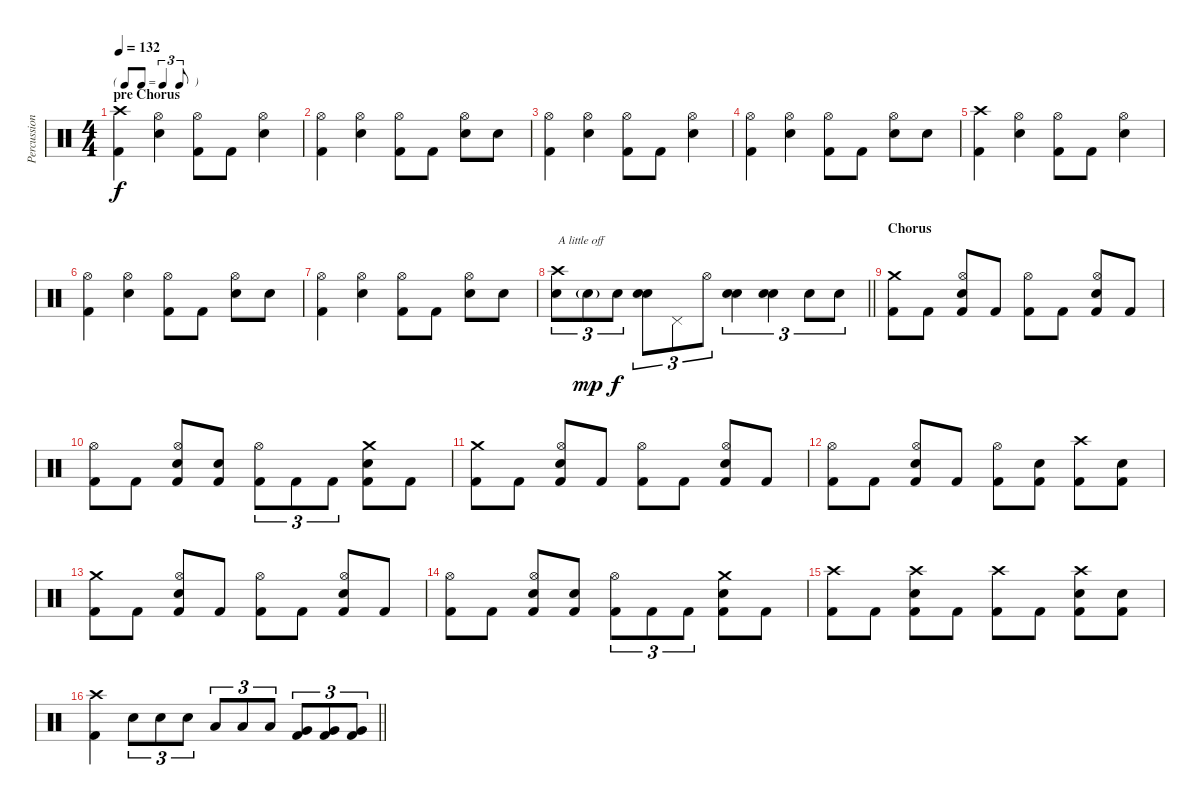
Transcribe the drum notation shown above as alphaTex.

\track ("Percussion" "Percussion") {instrument percussion}
\staff {score}
\articulation defaults
\ts (4 4)
\tf triplet8th
\section ("" "pre Chorus")
\tempo 132
\clef neutral
\ks c
("Crash high (hit)" "Kick (hit) 2").4{dy f} ("Hi-Hat (open)" "Electric Snare (hit)").4 ("Hi-Hat (open)" "Kick (hit) 2").8 "Kick (hit) 2".8 ("Hi-Hat (open)" "Electric Snare (hit)").4 |
("Hi-Hat (open)" "Kick (hit) 2").4 ("Hi-Hat (open)" "Electric Snare (hit)").4 ("Hi-Hat (open)" "Kick (hit) 2").8 "Kick (hit) 2".8 ("Hi-Hat (open)" "Electric Snare (hit)").8 "Electric Snare (hit)".8 |
("Hi-Hat (open)" "Kick (hit) 2").4 ("Hi-Hat (open)" "Electric Snare (hit)").4 ("Hi-Hat (open)" "Kick (hit) 2").8 "Kick (hit) 2".8 ("Hi-Hat (open)" "Electric Snare (hit)").4 |
("Hi-Hat (open)" "Kick (hit) 2").4 ("Hi-Hat (open)" "Electric Snare (hit)").4 ("Hi-Hat (open)" "Kick (hit) 2").8 "Kick (hit) 2".8 ("Hi-Hat (open)" "Electric Snare (hit)").8 "Electric Snare (hit)".8 |
("Crash high (hit)" "Kick (hit) 2").4 ("Hi-Hat (open)" "Electric Snare (hit)").4 ("Hi-Hat (open)" "Kick (hit) 2").8 "Kick (hit) 2".8 ("Hi-Hat (open)" "Electric Snare (hit)").4 |
("Hi-Hat (open)" "Kick (hit) 2").4 ("Hi-Hat (open)" "Electric Snare (hit)").4 ("Hi-Hat (open)" "Kick (hit) 2").8 "Kick (hit) 2".8 ("Hi-Hat (open)" "Electric Snare (hit)").8 "Electric Snare (hit)".8 |
("Hi-Hat (open)" "Kick (hit) 2").4 ("Hi-Hat (open)" "Electric Snare (hit)").4 ("Hi-Hat (open)" "Kick (hit) 2").8 "Kick (hit) 2".8 ("Hi-Hat (open)" "Electric Snare (hit)").8 "Electric Snare (hit)".8 |
\barLineRight lightlight
("Crash high (hit)" "Electric Snare (hit)").8{tu (3 2) txt "A little off"} "Electric Snare (hit)"{g}.8{tu (3 2) dy mp} "Electric Snare (hit)".8{tu (3 2) dy f} ("Electric Snare (hit)" "Electric Snare (hit)").8{tu (3 2)} "Pedal Hi-Hat (hit)".8{tu (3 2)} "Hi-Hat (open)".8{tu (3 2)} ("Electric Snare (hit)" "Electric Snare (hit)").4{tu (3 2)} ("Electric Snare (hit)" "Electric Snare (hit)").4{tu (3 2)} "Electric Snare (hit)".8{tu (3 2)} "Electric Snare (hit)".8{tu (3 2)} |
\section ("" "Chorus")
("Crash medium (hit)" "Kick (hit) 2").8 "Kick (hit) 2".8 ("Hi-Hat (open)" "Electric Snare (hit)" "Kick (hit) 2").8 "Kick (hit) 2".8 ("Hi-Hat (open)" "Kick (hit) 2").8 "Kick (hit) 2".8 ("Hi-Hat (open)" "Electric Snare (hit)" "Kick (hit) 2").8 "Kick (hit) 2".8 |
("Hi-Hat (open)" "Kick (hit) 2").8 "Kick (hit) 2".8 ("Hi-Hat (open)" "Electric Snare (hit)" "Kick (hit) 2").8 ("Electric Snare (hit)" "Kick (hit) 2").8 ("Hi-Hat (open)" "Kick (hit) 2").8{tu (3 2)} "Kick (hit) 2".8{tu (3 2)} "Kick (hit) 2".8{tu (3 2)} ("Crash medium (hit)" "Electric Snare (hit)" "Kick (hit) 2").8 "Kick (hit) 2".8 |
("Crash medium (hit)" "Kick (hit) 2").8 "Kick (hit) 2".8 ("Hi-Hat (open)" "Electric Snare (hit)" "Kick (hit) 2").8 "Kick (hit) 2".8 ("Hi-Hat (open)" "Kick (hit) 2").8 "Kick (hit) 2".8 ("Hi-Hat (open)" "Electric Snare (hit)" "Kick (hit) 2").8 "Kick (hit) 2".8 |
("Hi-Hat (open)" "Kick (hit) 2").8 "Kick (hit) 2".8 ("Hi-Hat (open)" "Electric Snare (hit)" "Kick (hit) 2").8 "Kick (hit) 2".8 ("Hi-Hat (open)" "Kick (hit) 2").8 ("Electric Snare (hit)" "Kick (hit) 2").8 ("Crash high (hit)" "Kick (hit) 2").8 ("Electric Snare (hit)" "Kick (hit) 2").8 |
("Crash medium (hit)" "Kick (hit) 2").8 "Kick (hit) 2".8 ("Hi-Hat (open)" "Electric Snare (hit)" "Kick (hit) 2").8 "Kick (hit) 2".8 ("Hi-Hat (open)" "Kick (hit) 2").8 "Kick (hit) 2".8 ("Hi-Hat (open)" "Electric Snare (hit)" "Kick (hit) 2").8 "Kick (hit) 2".8 |
("Hi-Hat (open)" "Kick (hit) 2").8 "Kick (hit) 2".8 ("Hi-Hat (open)" "Electric Snare (hit)" "Kick (hit) 2").8 ("Electric Snare (hit)" "Kick (hit) 2").8 ("Hi-Hat (open)" "Kick (hit) 2").8{tu (3 2)} "Kick (hit) 2".8{tu (3 2)} "Kick (hit) 2".8{tu (3 2)} ("Crash medium (hit)" "Electric Snare (hit)" "Kick (hit) 2").8 "Kick (hit) 2".8 |
("Crash high (hit)" "Kick (hit) 2").8 "Kick (hit) 2".8 ("Crash high (hit)" "Electric Snare (hit)" "Kick (hit) 2").8 "Kick (hit) 2".8 ("Crash high (hit)" "Kick (hit) 2").8 "Kick (hit) 2".8 ("Crash high (hit)" "Electric Snare (hit)" "Kick (hit) 2").8 ("Electric Snare (hit)" "Kick (hit) 2").8 |
\barLineRight lightlight
("Crash high (hit)" "Kick (hit) 2").4 "Electric Snare (hit)".8{tu (3 2)} "Electric Snare (hit)".8{tu (3 2)} "Electric Snare (hit)".8{tu (3 2)} "Low Tom (hit)".8{tu (3 2)} "Low Tom (hit)".8{tu (3 2)} "Low Tom (hit)".8{tu (3 2)} ("Very Low Tom (hit)" "Kick (hit) 2").8{tu (3 2)} ("Very Low Tom (hit)" "Kick (hit) 2").8{tu (3 2)} ("Very Low Tom (hit)" "Kick (hit) 2").8{tu (3 2)}
